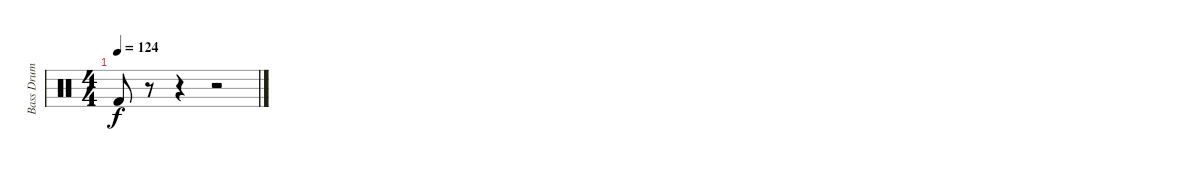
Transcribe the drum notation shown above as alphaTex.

\track ("Bass Drum and Snares" "Bass Drum ") {instrument percussion}
\staff {score}
\articulation defaults
\ts (4 4)
\tempo 124
\clef neutral
\ks c "Kick (hit) 2".8{dy f}
r.8 r.4 r.2
